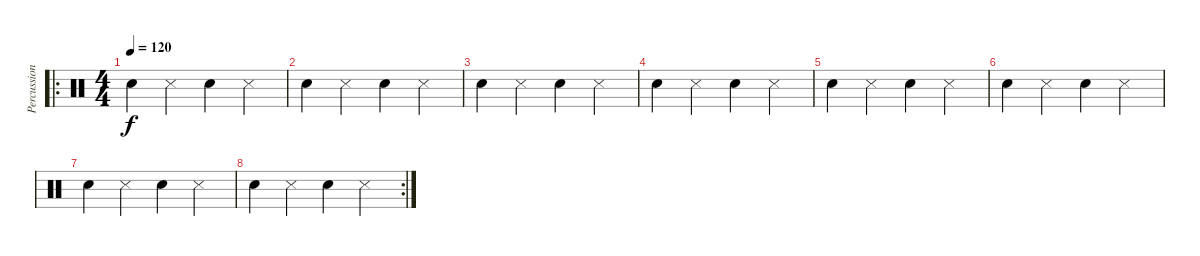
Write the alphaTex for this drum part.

\track ("Percussion" "Percussion") {instrument percussion}
\staff {score}
\articulation defaults
\ro
\ts (4 4)
\tempo 120
\clef neutral
\ks c "Snare (hit) 2".4{dy f} "Snare (side stick) 3".4 "Snare (hit) 2".4 "Snare (side stick) 3".4
|
"Snare (hit) 2".4 "Snare (side stick) 3".4 "Snare (hit) 2".4 "Snare (side stick) 3".4 |
"Snare (hit) 2".4 "Snare (side stick) 3".4 "Snare (hit) 2".4 "Snare (side stick) 3".4 |
"Snare (hit) 2".4 "Snare (side stick) 3".4 "Snare (hit) 2".4 "Snare (side stick) 3".4 |
"Snare (hit) 2".4 "Snare (side stick) 3".4 "Snare (hit) 2".4 "Snare (side stick) 3".4 |
"Snare (hit) 2".4 "Snare (side stick) 3".4 "Snare (hit) 2".4 "Snare (side stick) 3".4 |
"Snare (hit) 2".4 "Snare (side stick) 3".4 "Snare (hit) 2".4 "Snare (side stick) 3".4 |
\rc 2 "Snare (hit) 2".4 "Snare (side stick) 3".4 "Snare (hit) 2".4 "Snare (side stick) 3".4
